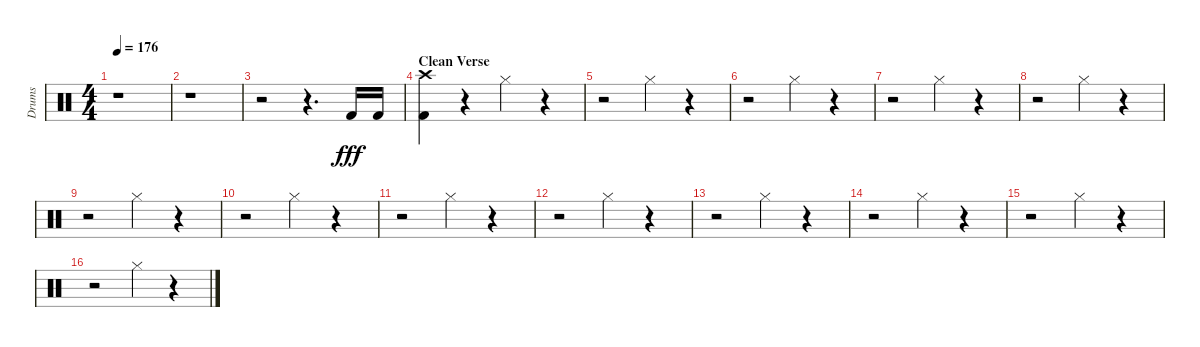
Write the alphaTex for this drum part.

\track ("Drums" "Drums") {instrument percussion}
\staff {score}
\articulation defaults
\ts (4 4)
\tempo 176
\clef neutral
\ks aminor
r.1{dy fff} |
r.1 |
r.2 r.4{d} "Kick (hit) 2".16 "Kick (hit) 2".16 |
\section ("" "Clean Verse")
("Kick (hit) 2" "Crash high (hit)").4 r.4 "Hi-Hat (closed)".4 r.4 |
r.2 "Hi-Hat (closed)".4 r.4 |
r.2 "Hi-Hat (closed)".4 r.4 |
r.2 "Hi-Hat (closed)".4 r.4 |
r.2 "Hi-Hat (closed)".4 r.4 |
r.2 "Hi-Hat (closed)".4 r.4 |
r.2 "Hi-Hat (closed)".4 r.4 |
r.2 "Hi-Hat (closed)".4 r.4 |
r.2 "Hi-Hat (closed)".4 r.4 |
r.2 "Hi-Hat (closed)".4 r.4 |
r.2 "Hi-Hat (closed)".4 r.4 |
r.2 "Hi-Hat (closed)".4 r.4 |
r.2 "Hi-Hat (closed)".4 r.4
